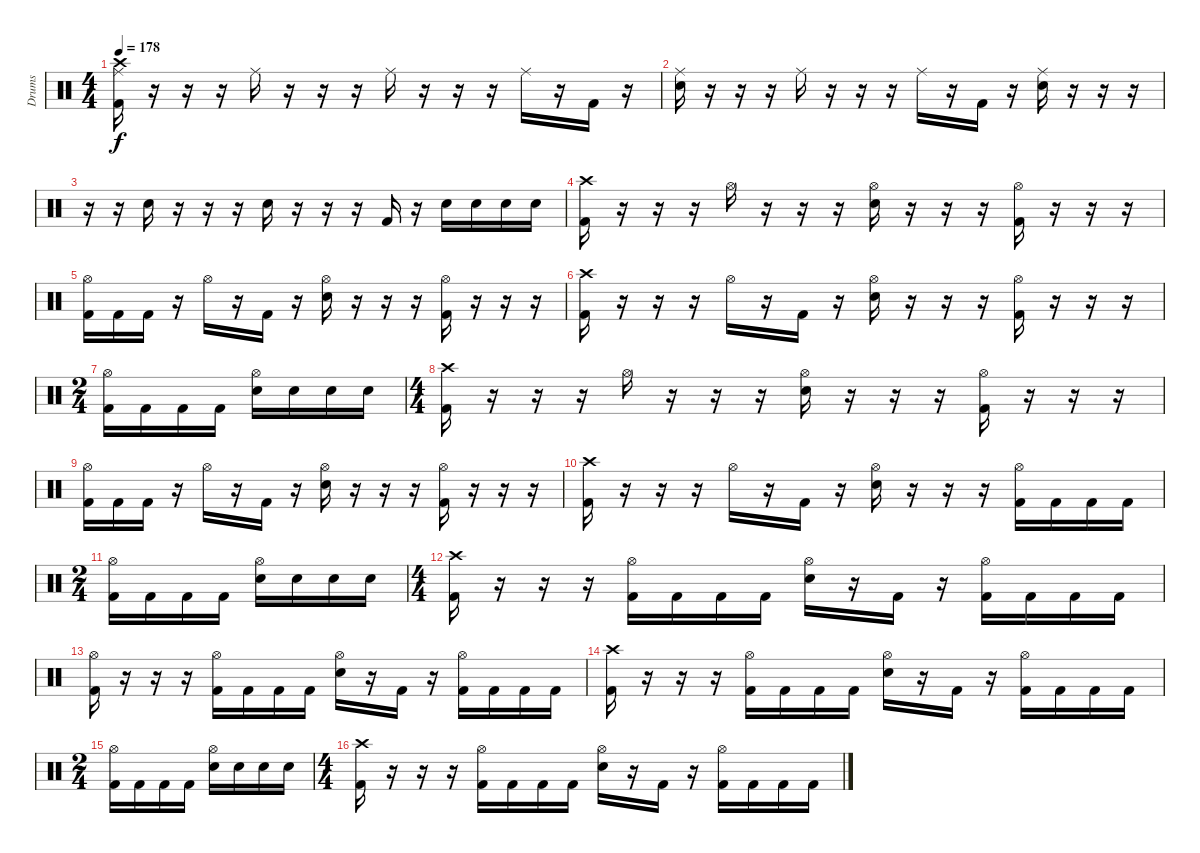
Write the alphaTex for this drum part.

\track ("Drums" "Drums") {instrument percussion}
\staff {score}
\articulation defaults
\ts (4 4)
\tempo 178
\clef neutral
\ks c
("Ride (middle)" "Crash high (hit)" "Kick (hit) 2").16{dy f} r.16 r.16 r.16 "Ride (middle)".16 r.16 r.16 r.16 "Ride (middle)".16 r.16 r.16 r.16 "Ride (middle)".16 r.16 "Kick (hit) 2".16 r.16 |
("Ride (middle)" "Electric Snare (hit)").16 r.16 r.16 r.16 "Ride (middle)".16 r.16 r.16 r.16 "Ride (middle)".16 r.16 "Kick (hit) 2".16 r.16 ("Ride (middle)" "Electric Snare (hit)").16 r.16 r.16 r.16 |
r.16 r.16 "Electric Snare (hit)".16 r.16 r.16 r.16 "Electric Snare (hit)".16 r.16 r.16 r.16 "Kick (hit) 2".16 r.16 "Electric Snare (hit)".16 "Electric Snare (hit)".16 "Electric Snare (hit)".16 "Electric Snare (hit)".16 |
("Crash high (hit)" "Kick (hit) 2").16 r.16 r.16 r.16 "Hi-Hat (open)".16 r.16 r.16 r.16 ("Hi-Hat (open)" "Electric Snare (hit)").16 r.16 r.16 r.16 ("Hi-Hat (open)" "Kick (hit) 2").16 r.16 r.16 r.16 |
("Hi-Hat (open)" "Kick (hit) 2").16 "Kick (hit) 2".16 "Kick (hit) 2".16 r.16 "Hi-Hat (open)".16 r.16 "Kick (hit) 2".16 r.16 ("Hi-Hat (open)" "Electric Snare (hit)").16 r.16 r.16 r.16 ("Hi-Hat (open)" "Kick (hit) 2").16 r.16 r.16 r.16 |
("Crash high (hit)" "Kick (hit) 2").16 r.16 r.16 r.16 "Hi-Hat (open)".16 r.16 "Kick (hit) 2".16 r.16 ("Hi-Hat (open)" "Electric Snare (hit)").16 r.16 r.16 r.16 ("Hi-Hat (open)" "Kick (hit) 2").16 r.16 r.16 r.16 |
\ts (2 4)
("Hi-Hat (open)" "Kick (hit) 2").16 "Kick (hit) 2".16 "Kick (hit) 2".16 "Kick (hit) 2".16 ("Hi-Hat (open)" "Electric Snare (hit)").16 "Electric Snare (hit)".16 "Electric Snare (hit)".16 "Electric Snare (hit)".16 |
\ts (4 4)
("Crash high (hit)" "Kick (hit) 2").16 r.16 r.16 r.16 "Hi-Hat (open)".16 r.16 r.16 r.16 ("Hi-Hat (open)" "Electric Snare (hit)").16 r.16 r.16 r.16 ("Hi-Hat (open)" "Kick (hit) 2").16 r.16 r.16 r.16 |
("Hi-Hat (open)" "Kick (hit) 2").16 "Kick (hit) 2".16 "Kick (hit) 2".16 r.16 "Hi-Hat (open)".16 r.16 "Kick (hit) 2".16 r.16 ("Hi-Hat (open)" "Electric Snare (hit)").16 r.16 r.16 r.16 ("Hi-Hat (open)" "Kick (hit) 2").16 r.16 r.16 r.16 |
("Crash high (hit)" "Kick (hit) 2").16 r.16 r.16 r.16 "Hi-Hat (open)".16 r.16 "Kick (hit) 2".16 r.16 ("Hi-Hat (open)" "Electric Snare (hit)").16 r.16 r.16 r.16 ("Hi-Hat (open)" "Kick (hit) 2").16 "Kick (hit) 2".16 "Kick (hit) 2".16 "Kick (hit) 2".16 |
\ts (2 4)
("Hi-Hat (open)" "Kick (hit) 2").16 "Kick (hit) 2".16 "Kick (hit) 2".16 "Kick (hit) 2".16 ("Hi-Hat (open)" "Electric Snare (hit)").16 "Electric Snare (hit)".16 "Electric Snare (hit)".16 "Electric Snare (hit)".16 |
\ts (4 4)
("Crash high (hit)" "Kick (hit) 2").16 r.16 r.16 r.16 ("Hi-Hat (open)" "Kick (hit) 2").16 "Kick (hit) 2".16 "Kick (hit) 2".16 "Kick (hit) 2".16 ("Hi-Hat (open)" "Electric Snare (hit)").16 r.16 "Kick (hit) 2".16 r.16 ("Hi-Hat (open)" "Kick (hit) 2").16 "Kick (hit) 2".16 "Kick (hit) 2".16 "Kick (hit) 2".16 |
("Hi-Hat (open)" "Kick (hit) 2").16 r.16 r.16 r.16 ("Hi-Hat (open)" "Kick (hit) 2").16 "Kick (hit) 2".16 "Kick (hit) 2".16 "Kick (hit) 2".16 ("Hi-Hat (open)" "Electric Snare (hit)").16 r.16 "Kick (hit) 2".16 r.16 ("Hi-Hat (open)" "Kick (hit) 2").16 "Kick (hit) 2".16 "Kick (hit) 2".16 "Kick (hit) 2".16 |
("Crash high (hit)" "Kick (hit) 2").16 r.16 r.16 r.16 ("Hi-Hat (open)" "Kick (hit) 2").16 "Kick (hit) 2".16 "Kick (hit) 2".16 "Kick (hit) 2".16 ("Hi-Hat (open)" "Electric Snare (hit)").16 r.16 "Kick (hit) 2".16 r.16 ("Hi-Hat (open)" "Kick (hit) 2").16 "Kick (hit) 2".16 "Kick (hit) 2".16 "Kick (hit) 2".16 |
\ts (2 4)
("Hi-Hat (open)" "Kick (hit) 2").16 "Kick (hit) 2".16 "Kick (hit) 2".16 "Kick (hit) 2".16 ("Hi-Hat (open)" "Electric Snare (hit)").16 "Electric Snare (hit)".16 "Electric Snare (hit)".16 "Electric Snare (hit)".16 |
\ts (4 4)
("Crash high (hit)" "Kick (hit) 2").16 r.16 r.16 r.16 ("Hi-Hat (open)" "Kick (hit) 2").16 "Kick (hit) 2".16 "Kick (hit) 2".16 "Kick (hit) 2".16 ("Hi-Hat (open)" "Electric Snare (hit)").16 r.16 "Kick (hit) 2".16 r.16 ("Hi-Hat (open)" "Kick (hit) 2").16 "Kick (hit) 2".16 "Kick (hit) 2".16 "Kick (hit) 2".16
